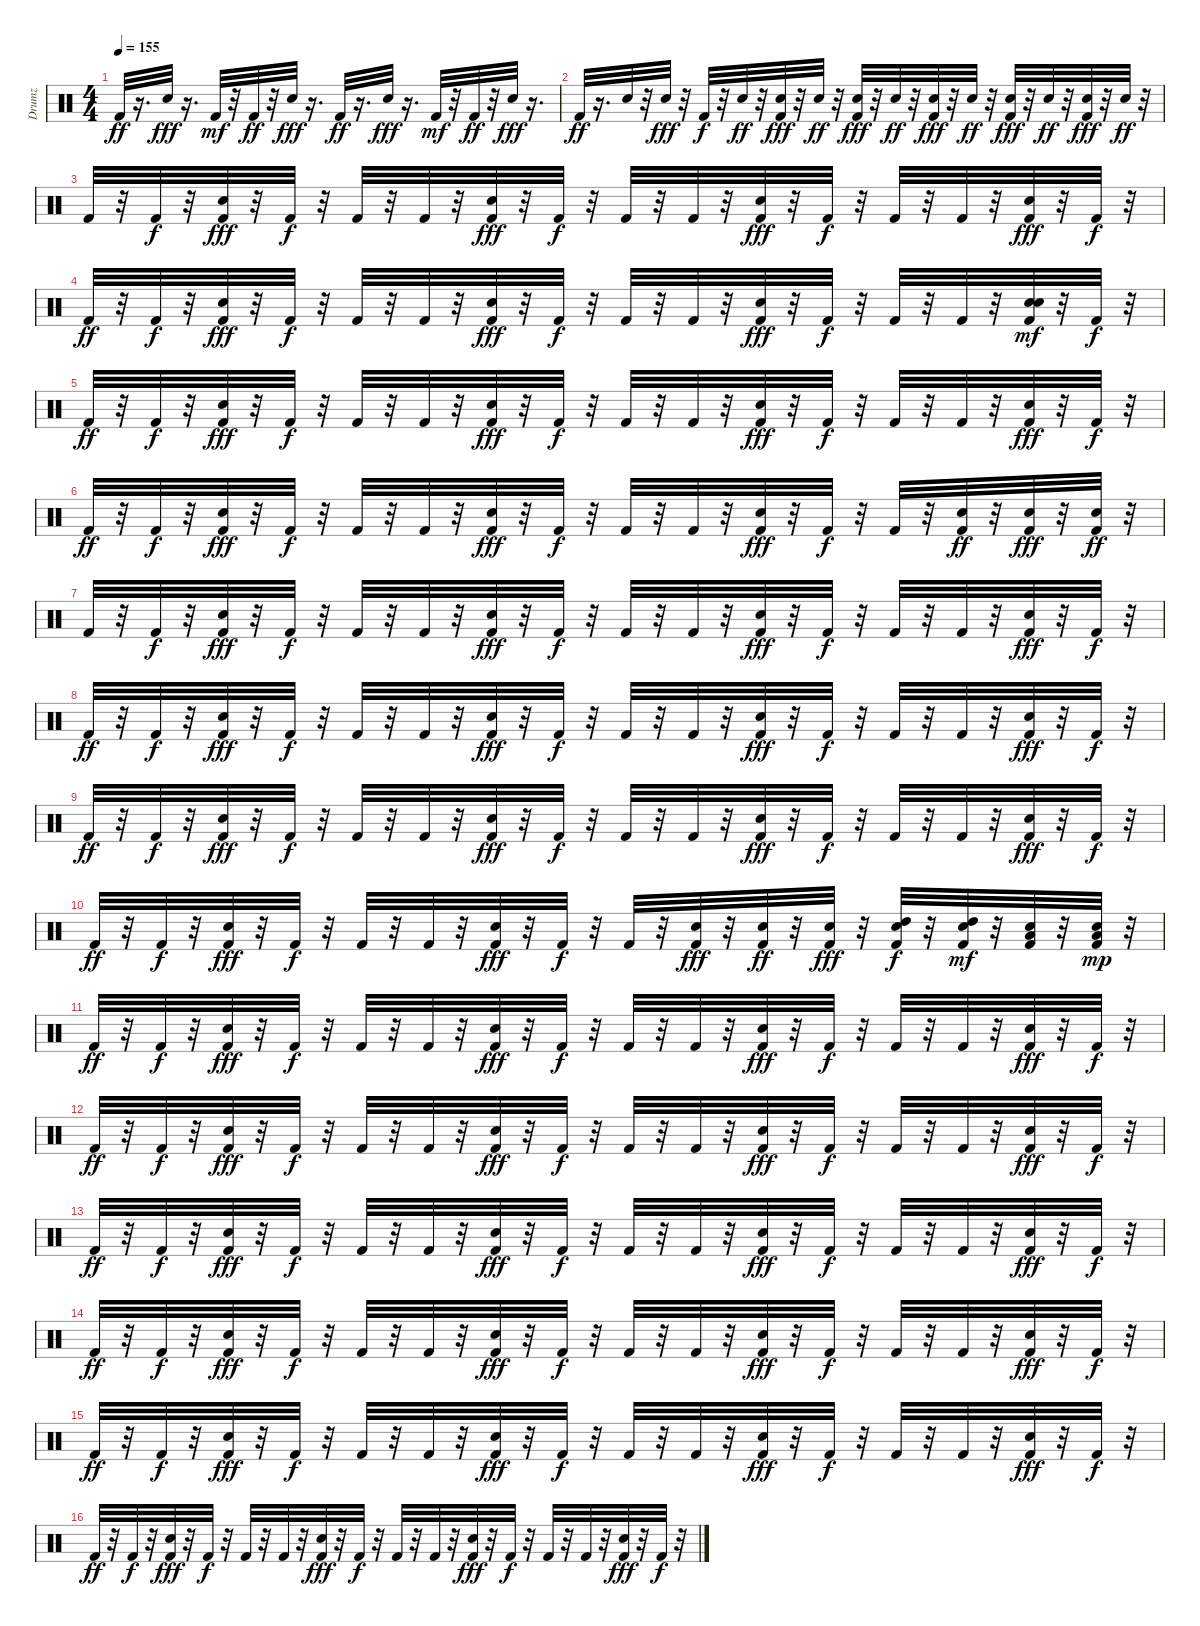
\track ("Drumz" "Drumz") {instrument percussion}
\staff {score}
\articulation defaults
\ts (4 4)
\tempo 155
\clef neutral
\ks c "Kick (hit) 2".32{dy ff}
r.16{d} "Snare (hit) 2".32{dy fff} r.16{d} "Kick (hit) 2".32{dy mf} r.32 "Kick (hit) 2".32{dy ff} r.32 "Snare (hit) 2".32{dy fff} r.16{d} "Kick (hit) 2".32{dy ff} r.16{d} "Snare (hit) 2".32{dy fff} r.16{d} "Kick (hit) 2".32{dy mf} r.32 "Kick (hit) 2".32{dy ff} r.32 "Snare (hit) 2".32{dy fff} r.16{d} |
"Kick (hit) 2".32{dy ff} r.16{d} "Snare (hit) 2".32 r.32 "Snare (hit) 2".32{dy fff} r.32 "Kick (hit) 2".32{dy f} r.32 "Snare (hit) 2".32{dy ff} r.32 ("Kick (hit) 2" "Snare (hit) 2").32{dy fff} r.32 "Snare (hit) 2".32{dy ff} r.32 ("Kick (hit) 2" "Snare (hit) 2").32{dy fff} r.32 "Snare (hit) 2".32{dy ff} r.32 ("Kick (hit) 2" "Snare (hit) 2").32{dy fff} r.32 "Snare (hit) 2".32{dy ff} r.32 ("Kick (hit) 2" "Snare (hit) 2").32{dy fff} r.32 "Snare (hit) 2".32{dy ff} r.32 ("Kick (hit) 2" "Snare (hit) 2").32{dy fff} r.32 "Snare (hit) 2".32{dy ff} r.32 |
"Kick (hit) 2".32 r.32 "Kick (hit) 2".32{dy f} r.32 ("Kick (hit) 2" "Snare (hit) 2").32{dy fff} r.32 "Kick (hit) 2".32{dy f} r.32 "Kick (hit) 2".32 r.32 "Kick (hit) 2".32 r.32 ("Kick (hit) 2" "Snare (hit) 2").32{dy fff} r.32 "Kick (hit) 2".32{dy f} r.32 "Kick (hit) 2".32 r.32 "Kick (hit) 2".32 r.32 ("Kick (hit) 2" "Snare (hit) 2").32{dy fff} r.32 "Kick (hit) 2".32{dy f} r.32 "Kick (hit) 2".32 r.32 "Kick (hit) 2".32 r.32 ("Kick (hit) 2" "Snare (hit) 2").32{dy fff} r.32 "Kick (hit) 2".32{dy f} r.32 |
"Kick (hit) 2".32{dy ff} r.32 "Kick (hit) 2".32{dy f} r.32 ("Kick (hit) 2" "Snare (hit) 2").32{dy fff} r.32 "Kick (hit) 2".32{dy f} r.32 "Kick (hit) 2".32 r.32 "Kick (hit) 2".32 r.32 ("Kick (hit) 2" "Snare (hit) 2").32{dy fff} r.32 "Kick (hit) 2".32{dy f} r.32 "Kick (hit) 2".32 r.32 "Kick (hit) 2".32 r.32 ("Kick (hit) 2" "Snare (hit) 2").32{dy fff} r.32 "Kick (hit) 2".32{dy f} r.32 "Kick (hit) 2".32 r.32 "Kick (hit) 2".32 r.32 ("Kick (hit) 2" "Snare (hit) 2" "Snare (hit) 2").32{dy mf} r.32 "Kick (hit) 2".32{dy f} r.32 |
"Kick (hit) 2".32{dy ff} r.32 "Kick (hit) 2".32{dy f} r.32 ("Kick (hit) 2" "Snare (hit) 2").32{dy fff} r.32 "Kick (hit) 2".32{dy f} r.32 "Kick (hit) 2".32 r.32 "Kick (hit) 2".32 r.32 ("Kick (hit) 2" "Snare (hit) 2").32{dy fff} r.32 "Kick (hit) 2".32{dy f} r.32 "Kick (hit) 2".32 r.32 "Kick (hit) 2".32 r.32 ("Kick (hit) 2" "Snare (hit) 2").32{dy fff} r.32 "Kick (hit) 2".32{dy f} r.32 "Kick (hit) 2".32 r.32 "Kick (hit) 2".32 r.32 ("Kick (hit) 2" "Snare (hit) 2").32{dy fff} r.32 "Kick (hit) 2".32{dy f} r.32 |
"Kick (hit) 2".32{dy ff} r.32 "Kick (hit) 2".32{dy f} r.32 ("Kick (hit) 2" "Snare (hit) 2").32{dy fff} r.32 "Kick (hit) 2".32{dy f} r.32 "Kick (hit) 2".32 r.32 "Kick (hit) 2".32 r.32 ("Kick (hit) 2" "Snare (hit) 2").32{dy fff} r.32 "Kick (hit) 2".32{dy f} r.32 "Kick (hit) 2".32 r.32 "Kick (hit) 2".32 r.32 ("Kick (hit) 2" "Snare (hit) 2").32{dy fff} r.32 "Kick (hit) 2".32{dy f} r.32 "Kick (hit) 2".32 r.32 ("Kick (hit) 2" "Snare (hit) 2").32{dy ff} r.32 ("Kick (hit) 2" "Snare (hit) 2").32{dy fff} r.32 ("Kick (hit) 2" "Snare (hit) 2").32{dy ff} r.32 |
"Kick (hit) 2".32 r.32 "Kick (hit) 2".32{dy f} r.32 ("Kick (hit) 2" "Snare (hit) 2").32{dy fff} r.32 "Kick (hit) 2".32{dy f} r.32 "Kick (hit) 2".32 r.32 "Kick (hit) 2".32 r.32 ("Kick (hit) 2" "Snare (hit) 2").32{dy fff} r.32 "Kick (hit) 2".32{dy f} r.32 "Kick (hit) 2".32 r.32 "Kick (hit) 2".32 r.32 ("Kick (hit) 2" "Snare (hit) 2").32{dy fff} r.32 "Kick (hit) 2".32{dy f} r.32 "Kick (hit) 2".32 r.32 "Kick (hit) 2".32 r.32 ("Kick (hit) 2" "Snare (hit) 2").32{dy fff} r.32 "Kick (hit) 2".32{dy f} r.32 |
"Kick (hit) 2".32{dy ff} r.32 "Kick (hit) 2".32{dy f} r.32 ("Kick (hit) 2" "Snare (hit) 2").32{dy fff} r.32 "Kick (hit) 2".32{dy f} r.32 "Kick (hit) 2".32 r.32 "Kick (hit) 2".32 r.32 ("Kick (hit) 2" "Snare (hit) 2").32{dy fff} r.32 "Kick (hit) 2".32{dy f} r.32 "Kick (hit) 2".32 r.32 "Kick (hit) 2".32 r.32 ("Kick (hit) 2" "Snare (hit) 2").32{dy fff} r.32 "Kick (hit) 2".32{dy f} r.32 "Kick (hit) 2".32 r.32 "Kick (hit) 2".32 r.32 ("Kick (hit) 2" "Snare (hit) 2").32{dy fff} r.32 "Kick (hit) 2".32{dy f} r.32 |
"Kick (hit) 2".32{dy ff} r.32 "Kick (hit) 2".32{dy f} r.32 ("Kick (hit) 2" "Snare (hit) 2").32{dy fff} r.32 "Kick (hit) 2".32{dy f} r.32 "Kick (hit) 2".32 r.32 "Kick (hit) 2".32 r.32 ("Kick (hit) 2" "Snare (hit) 2").32{dy fff} r.32 "Kick (hit) 2".32{dy f} r.32 "Kick (hit) 2".32 r.32 "Kick (hit) 2".32 r.32 ("Kick (hit) 2" "Snare (hit) 2").32{dy fff} r.32 "Kick (hit) 2".32{dy f} r.32 "Kick (hit) 2".32 r.32 "Kick (hit) 2".32 r.32 ("Kick (hit) 2" "Snare (hit) 2").32{dy fff} r.32 "Kick (hit) 2".32{dy f} r.32 |
"Kick (hit) 2".32{dy ff} r.32 "Kick (hit) 2".32{dy f} r.32 ("Kick (hit) 2" "Snare (hit) 2").32{dy fff} r.32 "Kick (hit) 2".32{dy f} r.32 "Kick (hit) 2".32 r.32 "Kick (hit) 2".32 r.32 ("Kick (hit) 2" "Snare (hit) 2").32{dy fff} r.32 "Kick (hit) 2".32{dy f} r.32 "Kick (hit) 2".32 r.32 ("Kick (hit) 2" "Snare (hit) 2").32{dy fff} r.32 ("Kick (hit) 2" "Snare (hit) 2").32{dy ff} r.32 ("Kick (hit) 2" "Snare (hit) 2").32{dy fff} r.32 ("Snare (hit) 2" "High Tom (hit)" "Kick (hit) 2").32{dy f} r.32 ("Snare (hit) 2" "High Tom (hit)" "Kick (hit) 2").32{dy mf} r.32 ("Snare (hit) 2" "Low Tom (hit)" "Kick (hit) 2").32 r.32 ("Kick (hit) 2" "Snare (hit) 2" "Low Tom (hit)").32{dy mp} r.32 |
"Kick (hit) 2".32{dy ff} r.32 "Kick (hit) 2".32{dy f} r.32 ("Kick (hit) 2" "Snare (hit) 2").32{dy fff} r.32 "Kick (hit) 2".32{dy f} r.32 "Kick (hit) 2".32 r.32 "Kick (hit) 2".32 r.32 ("Kick (hit) 2" "Snare (hit) 2").32{dy fff} r.32 "Kick (hit) 2".32{dy f} r.32 "Kick (hit) 2".32 r.32 "Kick (hit) 2".32 r.32 ("Kick (hit) 2" "Snare (hit) 2").32{dy fff} r.32 "Kick (hit) 2".32{dy f} r.32 "Kick (hit) 2".32 r.32 "Kick (hit) 2".32 r.32 ("Kick (hit) 2" "Snare (hit) 2").32{dy fff} r.32 "Kick (hit) 2".32{dy f} r.32 |
"Kick (hit) 2".32{dy ff} r.32 "Kick (hit) 2".32{dy f} r.32 ("Kick (hit) 2" "Snare (hit) 2").32{dy fff} r.32 "Kick (hit) 2".32{dy f} r.32 "Kick (hit) 2".32 r.32 "Kick (hit) 2".32 r.32 ("Kick (hit) 2" "Snare (hit) 2").32{dy fff} r.32 "Kick (hit) 2".32{dy f} r.32 "Kick (hit) 2".32 r.32 "Kick (hit) 2".32 r.32 ("Kick (hit) 2" "Snare (hit) 2").32{dy fff} r.32 "Kick (hit) 2".32{dy f} r.32 "Kick (hit) 2".32 r.32 "Kick (hit) 2".32 r.32 ("Kick (hit) 2" "Snare (hit) 2").32{dy fff} r.32 "Kick (hit) 2".32{dy f} r.32 |
"Kick (hit) 2".32{dy ff} r.32 "Kick (hit) 2".32{dy f} r.32 ("Kick (hit) 2" "Snare (hit) 2").32{dy fff} r.32 "Kick (hit) 2".32{dy f} r.32 "Kick (hit) 2".32 r.32 "Kick (hit) 2".32 r.32 ("Kick (hit) 2" "Snare (hit) 2").32{dy fff} r.32 "Kick (hit) 2".32{dy f} r.32 "Kick (hit) 2".32 r.32 "Kick (hit) 2".32 r.32 ("Kick (hit) 2" "Snare (hit) 2").32{dy fff} r.32 "Kick (hit) 2".32{dy f} r.32 "Kick (hit) 2".32 r.32 "Kick (hit) 2".32 r.32 ("Kick (hit) 2" "Snare (hit) 2").32{dy fff} r.32 "Kick (hit) 2".32{dy f} r.32 |
"Kick (hit) 2".32{dy ff} r.32 "Kick (hit) 2".32{dy f} r.32 ("Kick (hit) 2" "Snare (hit) 2").32{dy fff} r.32 "Kick (hit) 2".32{dy f} r.32 "Kick (hit) 2".32 r.32 "Kick (hit) 2".32 r.32 ("Kick (hit) 2" "Snare (hit) 2").32{dy fff} r.32 "Kick (hit) 2".32{dy f} r.32 "Kick (hit) 2".32 r.32 "Kick (hit) 2".32 r.32 ("Kick (hit) 2" "Snare (hit) 2").32{dy fff} r.32 "Kick (hit) 2".32{dy f} r.32 "Kick (hit) 2".32 r.32 "Kick (hit) 2".32 r.32 ("Kick (hit) 2" "Snare (hit) 2").32{dy fff} r.32 "Kick (hit) 2".32{dy f} r.32 |
"Kick (hit) 2".32{dy ff} r.32 "Kick (hit) 2".32{dy f} r.32 ("Kick (hit) 2" "Snare (hit) 2").32{dy fff} r.32 "Kick (hit) 2".32{dy f} r.32 "Kick (hit) 2".32 r.32 "Kick (hit) 2".32 r.32 ("Kick (hit) 2" "Snare (hit) 2").32{dy fff} r.32 "Kick (hit) 2".32{dy f} r.32 "Kick (hit) 2".32 r.32 "Kick (hit) 2".32 r.32 ("Kick (hit) 2" "Snare (hit) 2").32{dy fff} r.32 "Kick (hit) 2".32{dy f} r.32 "Kick (hit) 2".32 r.32 "Kick (hit) 2".32 r.32 ("Kick (hit) 2" "Snare (hit) 2").32{dy fff} r.32 "Kick (hit) 2".32{dy f} r.32 |
"Kick (hit) 2".32{dy ff} r.32 "Kick (hit) 2".32{dy f} r.32 ("Kick (hit) 2" "Snare (hit) 2").32{dy fff} r.32 "Kick (hit) 2".32{dy f} r.32 "Kick (hit) 2".32 r.32 "Kick (hit) 2".32 r.32 ("Kick (hit) 2" "Snare (hit) 2").32{dy fff} r.32 "Kick (hit) 2".32{dy f} r.32 "Kick (hit) 2".32 r.32 "Kick (hit) 2".32 r.32 ("Kick (hit) 2" "Snare (hit) 2").32{dy fff} r.32 "Kick (hit) 2".32{dy f} r.32 "Kick (hit) 2".32 r.32 "Kick (hit) 2".32 r.32 ("Kick (hit) 2" "Snare (hit) 2").32{dy fff} r.32 "Kick (hit) 2".32{dy f} r.32
